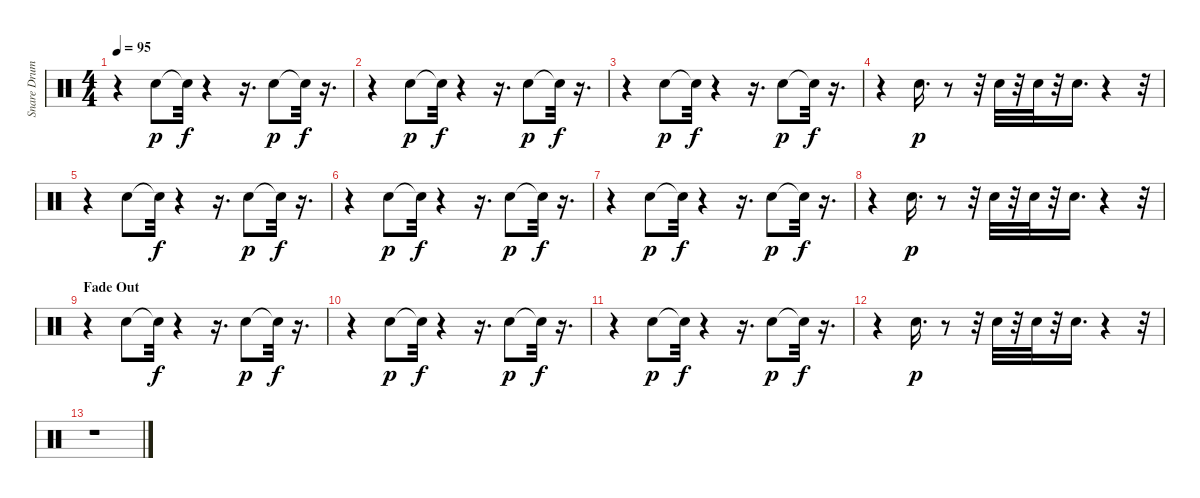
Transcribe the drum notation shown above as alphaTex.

\track ("Snare Drum" "Snare Drum") {instrument percussion}
\staff {score}
\articulation defaults
\ts (4 4)
\tempo 95
\clef neutral
\ks c
r.4{dy p} "Snare (hit) 2".8 "Snare (hit)"{t}.32{dy f} r.4 r.16{d} "Snare (hit) 2".8{dy p} "Snare (hit)"{t}.32{dy f} r.16{d} |
r.4 "Snare (hit) 2".8{dy p} "Snare (hit)"{t}.32{dy f} r.4 r.16{d} "Snare (hit) 2".8{dy p} "Snare (hit)"{t}.32{dy f} r.16{d} |
r.4 "Snare (hit) 2".8{dy p} "Snare (hit)"{t}.32{dy f} r.4 r.16{d} "Snare (hit) 2".8{dy p} "Snare (hit)"{t}.32{dy f} r.16{d} |
r.4 "Snare (hit) 2".16{d dy p} r.8 r.32 "Snare (hit) 2".32 r.32 "Snare (hit) 2".32 r.32 "Snare (hit) 2".16{d} r.4 r.32 |
r.4 "Snare (hit) 2".8 "Snare (hit)"{t}.32{dy f} r.4 r.16{d} "Snare (hit) 2".8{dy p} "Snare (hit)"{t}.32{dy f} r.16{d} |
r.4 "Snare (hit) 2".8{dy p} "Snare (hit)"{t}.32{dy f} r.4 r.16{d} "Snare (hit) 2".8{dy p} "Snare (hit)"{t}.32{dy f} r.16{d} |
r.4 "Snare (hit) 2".8{dy p} "Snare (hit)"{t}.32{dy f} r.4 r.16{d} "Snare (hit) 2".8{dy p} "Snare (hit)"{t}.32{dy f} r.16{d} |
r.4 "Snare (hit) 2".16{d dy p} r.8 r.32 "Snare (hit) 2".32 r.32 "Snare (hit) 2".32 r.32 "Snare (hit) 2".16{d} r.4 r.32 |
\section ("" "Fade Out")
r.4{volume 0} "Snare (hit) 2".8 "Snare (hit)"{t}.32{dy f} r.4 r.16{d} "Snare (hit) 2".8{dy p} "Snare (hit)"{t}.32{dy f} r.16{d} |
r.4 "Snare (hit) 2".8{dy p} "Snare (hit)"{t}.32{dy f} r.4 r.16{d} "Snare (hit) 2".8{dy p} "Snare (hit)"{t}.32{dy f} r.16{d} |
r.4 "Snare (hit) 2".8{dy p} "Snare (hit)"{t}.32{dy f} r.4 r.16{d} "Snare (hit) 2".8{dy p} "Snare (hit)"{t}.32{dy f} r.16{d} |
r.4 "Snare (hit) 2".16{d dy p} r.8 r.32 "Snare (hit) 2".32 r.32 "Snare (hit) 2".32 r.32 "Snare (hit) 2".16{d} r.4 r.32 |
r.1
